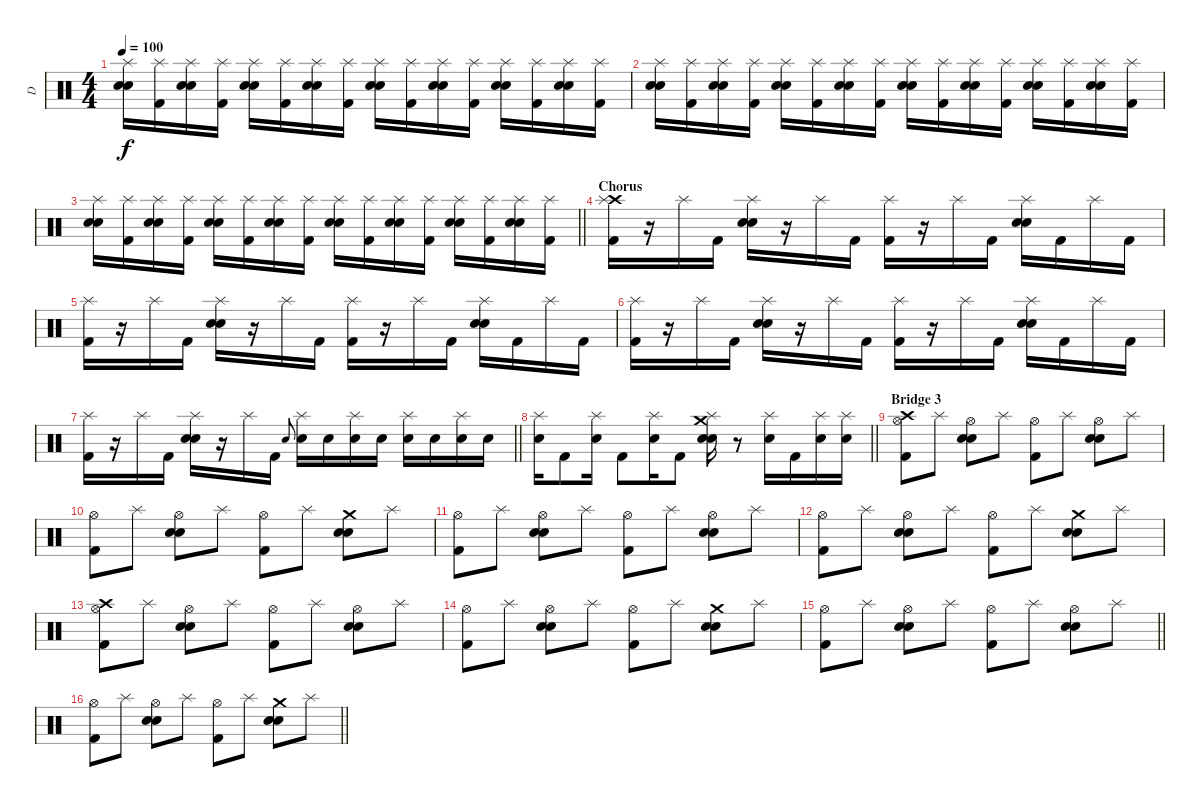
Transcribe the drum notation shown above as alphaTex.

\track ("D" "D") {instrument percussion}
\staff {score}
\articulation defaults
\ts (4 4)
\tempo 100
\clef neutral
\ks c
("Electric Snare (hit)" "Electric Snare (hit)" "Splash (hit)").16{dy f} ("Kick (hit) 2" "Splash (hit)").16 ("Electric Snare (hit)" "Electric Snare (hit)" "Splash (hit)").16 ("Kick (hit) 2" "Splash (hit)").16 ("Electric Snare (hit)" "Electric Snare (hit)" "Splash (hit)").16 ("Kick (hit) 2" "Splash (hit)").16 ("Electric Snare (hit)" "Electric Snare (hit)" "Splash (hit)").16 ("Kick (hit) 2" "Splash (hit)").16 ("Electric Snare (hit)" "Electric Snare (hit)" "Splash (hit)").16 ("Kick (hit) 2" "Splash (hit)").16 ("Electric Snare (hit)" "Electric Snare (hit)" "Splash (hit)").16 ("Kick (hit) 2" "Splash (hit)").16 ("Electric Snare (hit)" "Electric Snare (hit)" "Splash (hit)").16 ("Kick (hit) 2" "Splash (hit)").16 ("Electric Snare (hit)" "Electric Snare (hit)" "Splash (hit)").16 ("Kick (hit) 2" "Splash (hit)").16 |
("Electric Snare (hit)" "Electric Snare (hit)" "Splash (hit)").16 ("Kick (hit) 2" "Splash (hit)").16 ("Electric Snare (hit)" "Electric Snare (hit)" "Splash (hit)").16 ("Kick (hit) 2" "Splash (hit)").16 ("Electric Snare (hit)" "Electric Snare (hit)" "Splash (hit)").16 ("Kick (hit) 2" "Splash (hit)").16 ("Electric Snare (hit)" "Electric Snare (hit)" "Splash (hit)").16 ("Kick (hit) 2" "Splash (hit)").16 ("Electric Snare (hit)" "Electric Snare (hit)" "Splash (hit)").16 ("Kick (hit) 2" "Splash (hit)").16 ("Electric Snare (hit)" "Electric Snare (hit)" "Splash (hit)").16 ("Kick (hit) 2" "Splash (hit)").16 ("Electric Snare (hit)" "Electric Snare (hit)" "Splash (hit)").16 ("Kick (hit) 2" "Splash (hit)").16 ("Electric Snare (hit)" "Electric Snare (hit)" "Splash (hit)").16 ("Kick (hit) 2" "Splash (hit)").16 |
\barLineRight lightlight
("Electric Snare (hit)" "Electric Snare (hit)" "Splash (hit)").16 ("Kick (hit) 2" "Splash (hit)").16 ("Electric Snare (hit)" "Electric Snare (hit)" "Splash (hit)").16 ("Kick (hit) 2" "Splash (hit)").16 ("Electric Snare (hit)" "Electric Snare (hit)" "Splash (hit)").16 ("Kick (hit) 2" "Splash (hit)").16 ("Electric Snare (hit)" "Electric Snare (hit)" "Splash (hit)").16 ("Kick (hit) 2" "Splash (hit)").16 ("Electric Snare (hit)" "Electric Snare (hit)" "Splash (hit)").16 ("Kick (hit) 2" "Splash (hit)").16 ("Electric Snare (hit)" "Electric Snare (hit)" "Splash (hit)").16 ("Kick (hit) 2" "Splash (hit)").16 ("Electric Snare (hit)" "Electric Snare (hit)" "Splash (hit)").16 ("Kick (hit) 2" "Splash (hit)").16 ("Electric Snare (hit)" "Electric Snare (hit)" "Splash (hit)").16 ("Kick (hit) 2" "Splash (hit)").16 |
\section ("" "Chorus")
("Crash high (hit)" "Kick (hit) 2" "Splash (hit)").16 r.16 "Splash (hit)".16 "Kick (hit) 2".16 ("Electric Snare (hit)" "Electric Snare (hit)" "Splash (hit)").16 r.16 "Splash (hit)".16 "Kick (hit) 2".16 ("Kick (hit) 2" "Splash (hit)").16 r.16 "Splash (hit)".16 "Kick (hit) 2".16 ("Electric Snare (hit)" "Electric Snare (hit)" "Splash (hit)").16 "Kick (hit) 2".16 "Splash (hit)".16 "Kick (hit) 2".16 |
("Kick (hit) 2" "Splash (hit)").16 r.16 "Splash (hit)".16 "Kick (hit) 2".16 ("Electric Snare (hit)" "Electric Snare (hit)" "Splash (hit)").16 r.16 "Splash (hit)".16 "Kick (hit) 2".16 ("Kick (hit) 2" "Splash (hit)").16 r.16 "Splash (hit)".16 "Kick (hit) 2".16 ("Electric Snare (hit)" "Electric Snare (hit)" "Splash (hit)").16 "Kick (hit) 2".16 "Splash (hit)".16 "Kick (hit) 2".16 |
("Kick (hit) 2" "Splash (hit)").16 r.16 "Splash (hit)".16 "Kick (hit) 2".16 ("Electric Snare (hit)" "Electric Snare (hit)" "Splash (hit)").16 r.16 "Splash (hit)".16 "Kick (hit) 2".16 ("Kick (hit) 2" "Splash (hit)").16 r.16 "Splash (hit)".16 "Kick (hit) 2".16 ("Electric Snare (hit)" "Electric Snare (hit)" "Splash (hit)").16 "Kick (hit) 2".16 "Splash (hit)".16 "Kick (hit) 2".16 |
\barLineRight lightlight
("Kick (hit) 2" "Splash (hit)").16 r.16 "Splash (hit)".16 "Kick (hit) 2".16 ("Electric Snare (hit)" "Electric Snare (hit)" "Splash (hit)").16 r.16 "Splash (hit)".16 "Kick (hit) 2".16 "Electric Snare (hit)".8{gr onbeat} ("Electric Snare (hit)" "Splash (hit)").16 "Electric Snare (hit)".16 ("Electric Snare (hit)" "Splash (hit)").16 "Electric Snare (hit)".16 ("Electric Snare (hit)" "Splash (hit)").16 "Electric Snare (hit)".16 ("Electric Snare (hit)" "Splash (hit)").16 "Electric Snare (hit)".16 |
\section ("" "")
\barLineRight lightlight
("Electric Snare (hit)" "Splash (hit)").16 "Kick (hit) 2".8 ("Electric Snare (hit)" "Splash (hit)").16 "Kick (hit) 2".8 ("Electric Snare (hit)" "Splash (hit)").16 "Kick (hit) 2".8 ("Crash medium (hit)" "Electric Snare (hit)" "Electric Snare (hit)" "Splash (hit)").16 r.8 ("Electric Snare (hit)" "Splash (hit)").16 "Kick (hit) 2".16 ("Electric Snare (hit)" "Splash (hit)").16 ("Electric Snare (hit)" "Splash (hit)").16 |
\section ("" "Bridge 3")
("Crash high (hit)" "Kick (hit) 2" "Hi-Hat (open)").8 "Splash (hit)".8 ("Electric Snare (hit)" "Electric Snare (hit)" "Hi-Hat (open)").8 "Splash (hit)".8 ("Kick (hit) 2" "Hi-Hat (open)").8 "Splash (hit)".8 ("Electric Snare (hit)" "Electric Snare (hit)" "Hi-Hat (open)").8 "Splash (hit)".8 |
("Kick (hit) 2" "Hi-Hat (open)").8 "Splash (hit)".8 ("Electric Snare (hit)" "Electric Snare (hit)" "Hi-Hat (open)").8 "Splash (hit)".8 ("Kick (hit) 2" "Hi-Hat (open)").8 "Splash (hit)".8 ("Crash medium (hit)" "Electric Snare (hit)" "Electric Snare (hit)").8 "Splash (hit)".8 |
("Kick (hit) 2" "Hi-Hat (open)").8 "Splash (hit)".8 ("Electric Snare (hit)" "Electric Snare (hit)" "Hi-Hat (open)").8 "Splash (hit)".8 ("Kick (hit) 2" "Hi-Hat (open)").8 "Splash (hit)".8 ("Electric Snare (hit)" "Electric Snare (hit)" "Hi-Hat (open)").8 "Splash (hit)".8 |
("Kick (hit) 2" "Hi-Hat (open)").8 "Splash (hit)".8 ("Electric Snare (hit)" "Electric Snare (hit)" "Hi-Hat (open)").8 "Splash (hit)".8 ("Kick (hit) 2" "Hi-Hat (open)").8 "Splash (hit)".8 ("Crash medium (hit)" "Electric Snare (hit)" "Electric Snare (hit)").8 "Splash (hit)".8 |
("Crash high (hit)" "Kick (hit) 2" "Hi-Hat (open)").8 "Splash (hit)".8 ("Electric Snare (hit)" "Electric Snare (hit)" "Hi-Hat (open)").8 "Splash (hit)".8 ("Kick (hit) 2" "Hi-Hat (open)").8 "Splash (hit)".8 ("Electric Snare (hit)" "Electric Snare (hit)" "Hi-Hat (open)").8 "Splash (hit)".8 |
("Kick (hit) 2" "Hi-Hat (open)").8 "Splash (hit)".8 ("Electric Snare (hit)" "Electric Snare (hit)" "Hi-Hat (open)").8 "Splash (hit)".8 ("Kick (hit) 2" "Hi-Hat (open)").8 "Splash (hit)".8 ("Crash medium (hit)" "Electric Snare (hit)" "Electric Snare (hit)").8 "Splash (hit)".8 |
\barLineRight lightlight
("Kick (hit) 2" "Hi-Hat (open)").8 "Splash (hit)".8 ("Electric Snare (hit)" "Electric Snare (hit)" "Hi-Hat (open)").8 "Splash (hit)".8 ("Kick (hit) 2" "Hi-Hat (open)").8 "Splash (hit)".8 ("Electric Snare (hit)" "Electric Snare (hit)" "Hi-Hat (open)").8 "Splash (hit)".8 |
\barLineRight lightlight
("Kick (hit) 2" "Hi-Hat (open)").8 "Splash (hit)".8 ("Electric Snare (hit)" "Electric Snare (hit)" "Hi-Hat (open)").8 "Splash (hit)".8 ("Kick (hit) 2" "Hi-Hat (open)").8 "Splash (hit)".8 ("Crash medium (hit)" "Electric Snare (hit)" "Electric Snare (hit)").8 "Splash (hit)".8{volume 0}
